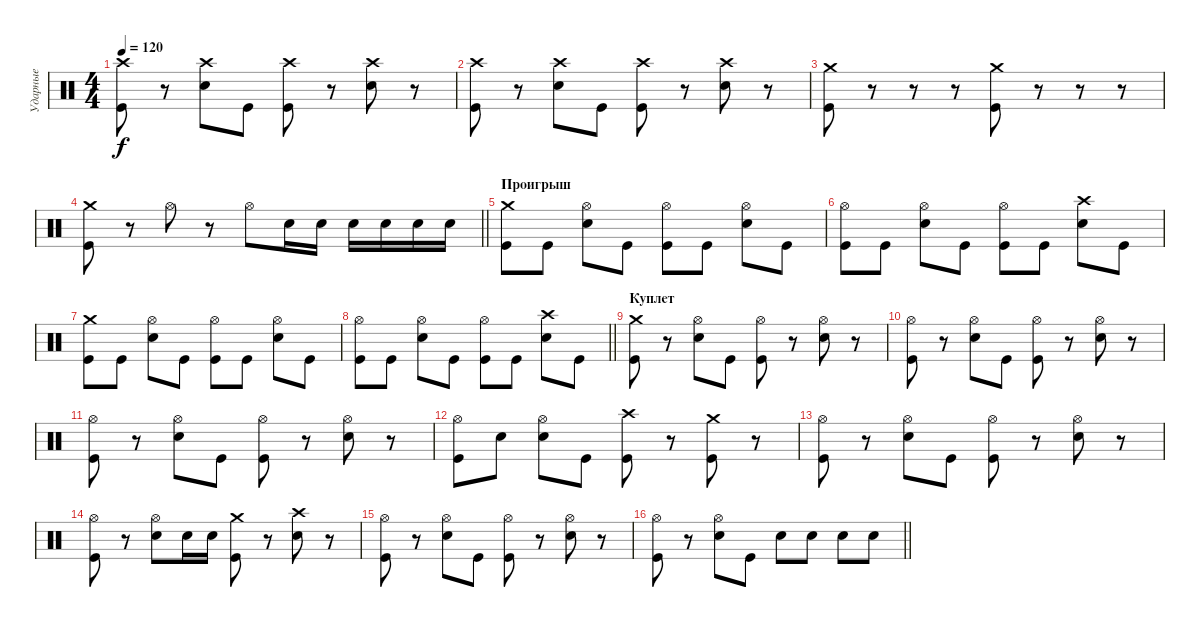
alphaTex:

\track ("Ударные" "Ударные") {instrument percussion}
\staff {score}
\articulation defaults
\ts (4 4)
\tempo 120
\clef neutral
\ks c
("Crash high (hit)" "Kick (hit)").8{dy f} r.8 ("Crash high (hit)" "Electric Snare (hit)").8 "Kick (hit)".8 ("Crash high (hit)" "Kick (hit)").8 r.8 ("Crash high (hit)" "Electric Snare (hit)").8 r.8 |
("Crash high (hit)" "Kick (hit)").8 r.8 ("Crash high (hit)" "Electric Snare (hit)").8 "Kick (hit)".8 ("Crash high (hit)" "Kick (hit)").8 r.8 ("Crash high (hit)" "Electric Snare (hit)").8 r.8 |
("Crash medium (hit)" "Kick (hit)").8 r.8 r.8 r.8 ("Crash medium (hit)" "Kick (hit)").8 r.8 r.8 r.8 |
\barLineRight lightlight
("Crash medium (hit)" "Kick (hit)").8 r.8 "Hi-Hat (open)".8 r.8 "Hi-Hat (open)".8 "Electric Snare (hit)".16 "Electric Snare (hit)".16 "Electric Snare (hit)".16 "Electric Snare (hit)".16 "Electric Snare (hit)".16 "Electric Snare (hit)".16 |
\section ("" "Проигрыш")
("Crash medium (hit)" "Kick (hit)").8 "Kick (hit)".8 ("Hi-Hat (open)" "Electric Snare (hit)").8 "Kick (hit)".8 ("Hi-Hat (open)" "Kick (hit)").8 "Kick (hit)".8 ("Hi-Hat (open)" "Electric Snare (hit)").8 "Kick (hit)".8 |
("Hi-Hat (open)" "Kick (hit)").8 "Kick (hit)".8 ("Hi-Hat (open)" "Electric Snare (hit)").8 "Kick (hit)".8 ("Hi-Hat (open)" "Kick (hit)").8 "Kick (hit)".8 ("Crash high (hit)" "Electric Snare (hit)").8 "Kick (hit)".8 |
("Crash medium (hit)" "Kick (hit)").8 "Kick (hit)".8 ("Hi-Hat (open)" "Electric Snare (hit)").8 "Kick (hit)".8 ("Hi-Hat (open)" "Kick (hit)").8 "Kick (hit)".8 ("Hi-Hat (open)" "Electric Snare (hit)").8 "Kick (hit)".8 |
\barLineRight lightlight
("Hi-Hat (open)" "Kick (hit)").8 "Kick (hit)".8 ("Hi-Hat (open)" "Electric Snare (hit)").8 "Kick (hit)".8 ("Hi-Hat (open)" "Kick (hit)").8 "Kick (hit)".8 ("Crash high (hit)" "Electric Snare (hit)").8 "Kick (hit)".8 |
\section ("" "Куплет")
("Crash medium (hit)" "Kick (hit)").8 r.8 ("Hi-Hat (open)" "Electric Snare (hit)").8 "Kick (hit)".8 ("Hi-Hat (open)" "Kick (hit)").8 r.8 ("Hi-Hat (open)" "Electric Snare (hit)").8 r.8 |
("Hi-Hat (open)" "Kick (hit)").8 r.8 ("Hi-Hat (open)" "Electric Snare (hit)").8 "Kick (hit)".8 ("Hi-Hat (open)" "Kick (hit)").8 r.8 ("Hi-Hat (open)" "Electric Snare (hit)").8 r.8 |
("Hi-Hat (open)" "Kick (hit)").8 r.8 ("Hi-Hat (open)" "Electric Snare (hit)").8 "Kick (hit)".8 ("Hi-Hat (open)" "Kick (hit)").8 r.8 ("Hi-Hat (open)" "Electric Snare (hit)").8 r.8 |
("Hi-Hat (open)" "Kick (hit)").8 "Electric Snare (hit)".8 ("Hi-Hat (open)" "Electric Snare (hit)").8 "Kick (hit)".8 ("Crash high (hit)" "Kick (hit)").8 r.8 ("Crash medium (hit)" "Kick (hit)").8 r.8 |
("Hi-Hat (open)" "Kick (hit)").8 r.8 ("Hi-Hat (open)" "Electric Snare (hit)").8 "Kick (hit)".8 ("Hi-Hat (open)" "Kick (hit)").8 r.8 ("Hi-Hat (open)" "Electric Snare (hit)").8 r.8 |
("Hi-Hat (open)" "Kick (hit)").8 r.8 ("Hi-Hat (open)" "Electric Snare (hit)").8 "Electric Snare (hit)".16 "Electric Snare (hit)".16 ("Crash medium (hit)" "Kick (hit)").8 r.8 ("Crash high (hit)" "Electric Snare (hit)").8 r.8 |
("Hi-Hat (open)" "Kick (hit)").8 r.8 ("Hi-Hat (open)" "Electric Snare (hit)").8 "Kick (hit)".8 ("Hi-Hat (open)" "Kick (hit)").8 r.8 ("Hi-Hat (open)" "Electric Snare (hit)").8 r.8 |
\barLineRight lightlight
("Hi-Hat (open)" "Kick (hit)").8 r.8 ("Hi-Hat (open)" "Electric Snare (hit)").8 "Kick (hit)".8 "Electric Snare (hit)".8 "Electric Snare (hit)".8 "Electric Snare (hit)".8 "Electric Snare (hit)".8
